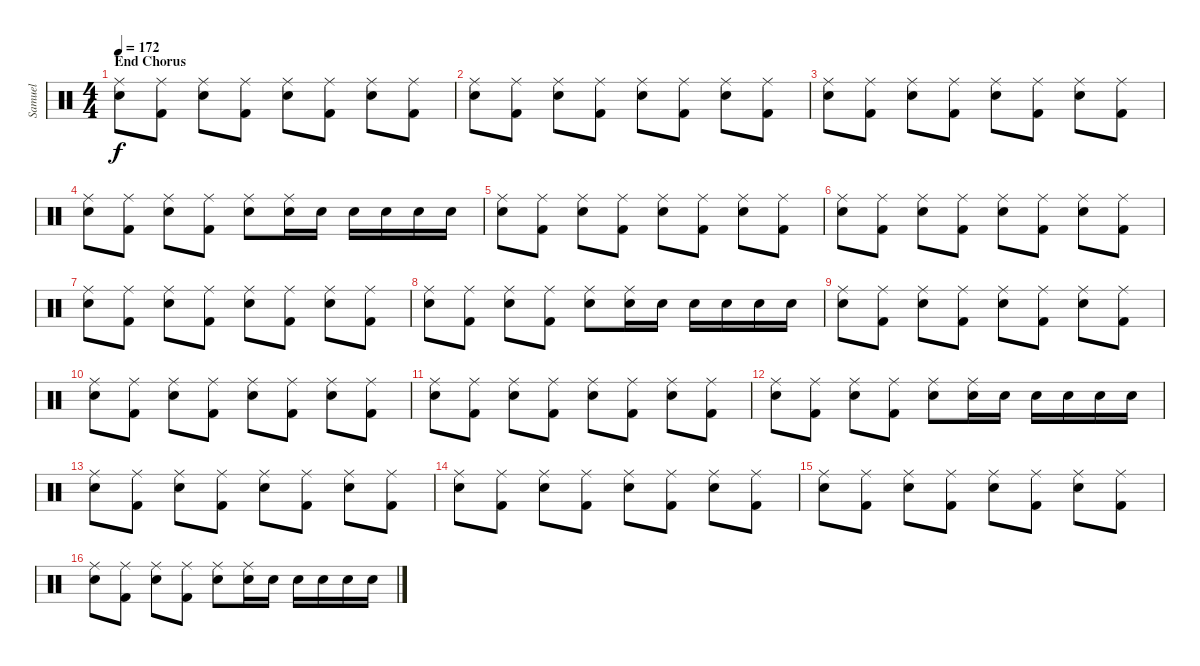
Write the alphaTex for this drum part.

\track ("Samuel" "Samuel") {instrument percussion}
\staff {score}
\articulation defaults
\ts (4 4)
\section ("" "End Chorus")
\tempo 172
\clef neutral
\ks c
("Ride (middle)" "Snare (hit) 2").8{dy f} ("Ride (middle)" "Kick (hit) 2").8 ("Ride (middle)" "Snare (hit) 2").8 ("Ride (middle)" "Kick (hit) 2").8 ("Ride (middle)" "Snare (hit) 2").8 ("Ride (middle)" "Kick (hit) 2").8 ("Ride (middle)" "Snare (hit) 2").8 ("Ride (middle)" "Kick (hit) 2").8 |
("Ride (middle)" "Snare (hit) 2").8 ("Ride (middle)" "Kick (hit) 2").8 ("Ride (middle)" "Snare (hit) 2").8 ("Ride (middle)" "Kick (hit) 2").8 ("Ride (middle)" "Snare (hit) 2").8 ("Ride (middle)" "Kick (hit) 2").8 ("Ride (middle)" "Snare (hit) 2").8 ("Ride (middle)" "Kick (hit) 2").8 |
("Ride (middle)" "Snare (hit) 2").8 ("Ride (middle)" "Kick (hit) 2").8 ("Ride (middle)" "Snare (hit) 2").8 ("Ride (middle)" "Kick (hit) 2").8 ("Ride (middle)" "Snare (hit) 2").8 ("Ride (middle)" "Kick (hit) 2").8 ("Ride (middle)" "Snare (hit) 2").8 ("Ride (middle)" "Kick (hit) 2").8 |
("Ride (middle)" "Snare (hit) 2").8 ("Ride (middle)" "Kick (hit) 2").8 ("Ride (middle)" "Snare (hit) 2").8 ("Ride (middle)" "Kick (hit) 2").8 ("Ride (middle)" "Snare (hit) 2").8 ("Ride (middle)" "Snare (hit) 2").16 "Snare (hit) 2".16 "Snare (hit) 2".16 "Snare (hit) 2".16 "Snare (hit) 2".16 "Snare (hit) 2".16 |
("Ride (middle)" "Snare (hit) 2").8 ("Ride (middle)" "Kick (hit) 2").8 ("Ride (middle)" "Snare (hit) 2").8 ("Ride (middle)" "Kick (hit) 2").8 ("Ride (middle)" "Snare (hit) 2").8 ("Ride (middle)" "Kick (hit) 2").8 ("Ride (middle)" "Snare (hit) 2").8 ("Ride (middle)" "Kick (hit) 2").8 |
("Ride (middle)" "Snare (hit) 2").8 ("Ride (middle)" "Kick (hit) 2").8 ("Ride (middle)" "Snare (hit) 2").8 ("Ride (middle)" "Kick (hit) 2").8 ("Ride (middle)" "Snare (hit) 2").8 ("Ride (middle)" "Kick (hit) 2").8 ("Ride (middle)" "Snare (hit) 2").8 ("Ride (middle)" "Kick (hit) 2").8 |
("Ride (middle)" "Snare (hit) 2").8 ("Ride (middle)" "Kick (hit) 2").8 ("Ride (middle)" "Snare (hit) 2").8 ("Ride (middle)" "Kick (hit) 2").8 ("Ride (middle)" "Snare (hit) 2").8 ("Ride (middle)" "Kick (hit) 2").8 ("Ride (middle)" "Snare (hit) 2").8 ("Ride (middle)" "Kick (hit) 2").8 |
("Ride (middle)" "Snare (hit) 2").8 ("Ride (middle)" "Kick (hit) 2").8 ("Ride (middle)" "Snare (hit) 2").8 ("Ride (middle)" "Kick (hit) 2").8 ("Ride (middle)" "Snare (hit) 2").8 ("Ride (middle)" "Snare (hit) 2").16 "Snare (hit) 2".16 "Snare (hit) 2".16 "Snare (hit) 2".16 "Snare (hit) 2".16 "Snare (hit) 2".16 |
("Ride (middle)" "Snare (hit) 2").8 ("Ride (middle)" "Kick (hit) 2").8 ("Ride (middle)" "Snare (hit) 2").8 ("Ride (middle)" "Kick (hit) 2").8 ("Ride (middle)" "Snare (hit) 2").8 ("Ride (middle)" "Kick (hit) 2").8 ("Ride (middle)" "Snare (hit) 2").8 ("Ride (middle)" "Kick (hit) 2").8 |
("Ride (middle)" "Snare (hit) 2").8 ("Ride (middle)" "Kick (hit) 2").8 ("Ride (middle)" "Snare (hit) 2").8 ("Ride (middle)" "Kick (hit) 2").8 ("Ride (middle)" "Snare (hit) 2").8 ("Ride (middle)" "Kick (hit) 2").8 ("Ride (middle)" "Snare (hit) 2").8 ("Ride (middle)" "Kick (hit) 2").8 |
("Ride (middle)" "Snare (hit) 2").8 ("Ride (middle)" "Kick (hit) 2").8 ("Ride (middle)" "Snare (hit) 2").8 ("Ride (middle)" "Kick (hit) 2").8 ("Ride (middle)" "Snare (hit) 2").8 ("Ride (middle)" "Kick (hit) 2").8 ("Ride (middle)" "Snare (hit) 2").8 ("Ride (middle)" "Kick (hit) 2").8 |
("Ride (middle)" "Snare (hit) 2").8 ("Ride (middle)" "Kick (hit) 2").8 ("Ride (middle)" "Snare (hit) 2").8 ("Ride (middle)" "Kick (hit) 2").8 ("Ride (middle)" "Snare (hit) 2").8 ("Ride (middle)" "Snare (hit) 2").16 "Snare (hit) 2".16 "Snare (hit) 2".16 "Snare (hit) 2".16 "Snare (hit) 2".16 "Snare (hit) 2".16 |
("Ride (middle)" "Snare (hit) 2").8 ("Ride (middle)" "Kick (hit) 2").8 ("Ride (middle)" "Snare (hit) 2").8 ("Ride (middle)" "Kick (hit) 2").8 ("Ride (middle)" "Snare (hit) 2").8 ("Ride (middle)" "Kick (hit) 2").8 ("Ride (middle)" "Snare (hit) 2").8 ("Ride (middle)" "Kick (hit) 2").8 |
("Ride (middle)" "Snare (hit) 2").8 ("Ride (middle)" "Kick (hit) 2").8 ("Ride (middle)" "Snare (hit) 2").8 ("Ride (middle)" "Kick (hit) 2").8 ("Ride (middle)" "Snare (hit) 2").8 ("Ride (middle)" "Kick (hit) 2").8 ("Ride (middle)" "Snare (hit) 2").8 ("Ride (middle)" "Kick (hit) 2").8 |
("Ride (middle)" "Snare (hit) 2").8 ("Ride (middle)" "Kick (hit) 2").8 ("Ride (middle)" "Snare (hit) 2").8 ("Ride (middle)" "Kick (hit) 2").8 ("Ride (middle)" "Snare (hit) 2").8 ("Ride (middle)" "Kick (hit) 2").8 ("Ride (middle)" "Snare (hit) 2").8 ("Ride (middle)" "Kick (hit) 2").8 |
("Ride (middle)" "Snare (hit) 2").8 ("Ride (middle)" "Kick (hit) 2").8 ("Ride (middle)" "Snare (hit) 2").8 ("Ride (middle)" "Kick (hit) 2").8 ("Ride (middle)" "Snare (hit) 2").8 ("Ride (middle)" "Snare (hit) 2").16 "Snare (hit) 2".16 "Snare (hit) 2".16 "Snare (hit) 2".16 "Snare (hit) 2".16 "Snare (hit) 2".16
